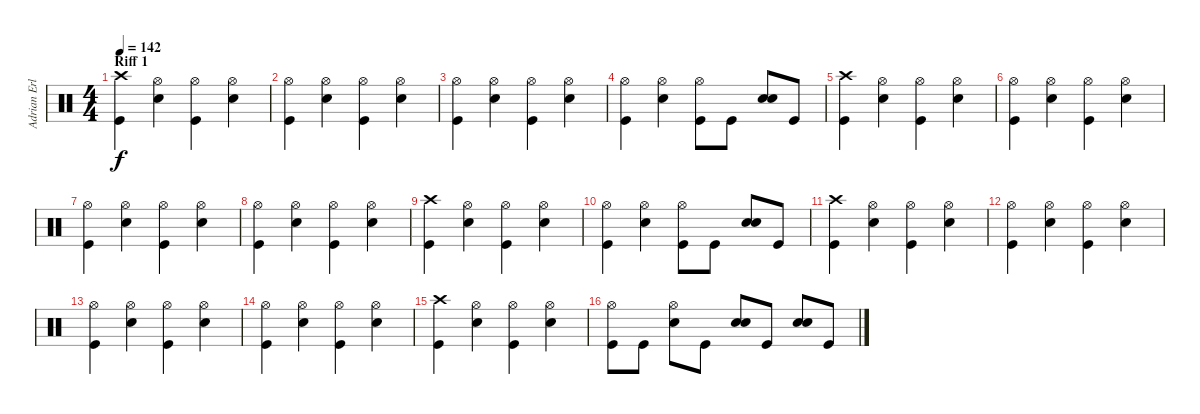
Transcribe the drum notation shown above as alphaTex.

\track ("Adrian Erlandsson (Norseman of the Apoca" "Adrian Erl") {instrument percussion}
\staff {score}
\articulation defaults
\ts (4 4)
\section ("" "Riff 1")
\tempo 142
\clef neutral
\ks c
("Crash high (hit)" "Kick (hit)").4{dy f} ("Hi-Hat (open)" "Electric Snare (hit)").4 ("Hi-Hat (open)" "Kick (hit)").4 ("Hi-Hat (open)" "Electric Snare (hit)").4 |
("Hi-Hat (open)" "Kick (hit)").4 ("Hi-Hat (open)" "Electric Snare (hit)").4 ("Hi-Hat (open)" "Kick (hit)").4 ("Hi-Hat (open)" "Electric Snare (hit)").4 |
("Hi-Hat (open)" "Kick (hit)").4 ("Hi-Hat (open)" "Electric Snare (hit)").4 ("Hi-Hat (open)" "Kick (hit)").4 ("Hi-Hat (open)" "Electric Snare (hit)").4 |
("Hi-Hat (open)" "Kick (hit)").4 ("Hi-Hat (open)" "Electric Snare (hit)").4 ("Hi-Hat (open)" "Kick (hit)").8 "Kick (hit)".8 ("Electric Snare (hit)" "Electric Snare (hit)").8{bu 120} "Kick (hit)".8 |
("Crash high (hit)" "Kick (hit)").4 ("Hi-Hat (open)" "Electric Snare (hit)").4 ("Hi-Hat (open)" "Kick (hit)").4 ("Hi-Hat (open)" "Electric Snare (hit)").4 |
("Hi-Hat (open)" "Kick (hit)").4 ("Hi-Hat (open)" "Electric Snare (hit)").4 ("Hi-Hat (open)" "Kick (hit)").4 ("Hi-Hat (open)" "Electric Snare (hit)").4 |
("Hi-Hat (open)" "Kick (hit)").4 ("Hi-Hat (open)" "Electric Snare (hit)").4 ("Hi-Hat (open)" "Kick (hit)").4 ("Hi-Hat (open)" "Electric Snare (hit)").4 |
("Hi-Hat (open)" "Kick (hit)").4 ("Hi-Hat (open)" "Electric Snare (hit)").4 ("Hi-Hat (open)" "Kick (hit)").4 ("Hi-Hat (open)" "Electric Snare (hit)").4 |
("Crash high (hit)" "Kick (hit)").4 ("Hi-Hat (open)" "Electric Snare (hit)").4 ("Hi-Hat (open)" "Kick (hit)").4 ("Hi-Hat (open)" "Electric Snare (hit)").4 |
("Hi-Hat (open)" "Kick (hit)").4 ("Hi-Hat (open)" "Electric Snare (hit)").4 ("Hi-Hat (open)" "Kick (hit)").8 "Kick (hit)".8 ("Electric Snare (hit)" "Electric Snare (hit)").8{bu 120} "Kick (hit)".8 |
("Crash high (hit)" "Kick (hit)").4 ("Hi-Hat (open)" "Electric Snare (hit)").4 ("Hi-Hat (open)" "Kick (hit)").4 ("Hi-Hat (open)" "Electric Snare (hit)").4 |
("Hi-Hat (open)" "Kick (hit)").4 ("Hi-Hat (open)" "Electric Snare (hit)").4 ("Hi-Hat (open)" "Kick (hit)").4 ("Hi-Hat (open)" "Electric Snare (hit)").4 |
("Hi-Hat (open)" "Kick (hit)").4 ("Hi-Hat (open)" "Electric Snare (hit)").4 ("Hi-Hat (open)" "Kick (hit)").4 ("Hi-Hat (open)" "Electric Snare (hit)").4 |
("Hi-Hat (open)" "Kick (hit)").4 ("Hi-Hat (open)" "Electric Snare (hit)").4 ("Hi-Hat (open)" "Kick (hit)").4 ("Hi-Hat (open)" "Electric Snare (hit)").4 |
("Crash high (hit)" "Kick (hit)").4 ("Hi-Hat (open)" "Electric Snare (hit)").4 ("Hi-Hat (open)" "Kick (hit)").4 ("Hi-Hat (open)" "Electric Snare (hit)").4 |
("Hi-Hat (open)" "Kick (hit)").8 "Kick (hit)".8 ("Hi-Hat (open)" "Electric Snare (hit)").8 "Kick (hit)".8 ("Electric Snare (hit)" "Electric Snare (hit)").8{bu 120} "Kick (hit)".8 ("Electric Snare (hit)" "Electric Snare (hit)").8{bu 120} "Kick (hit)".8
